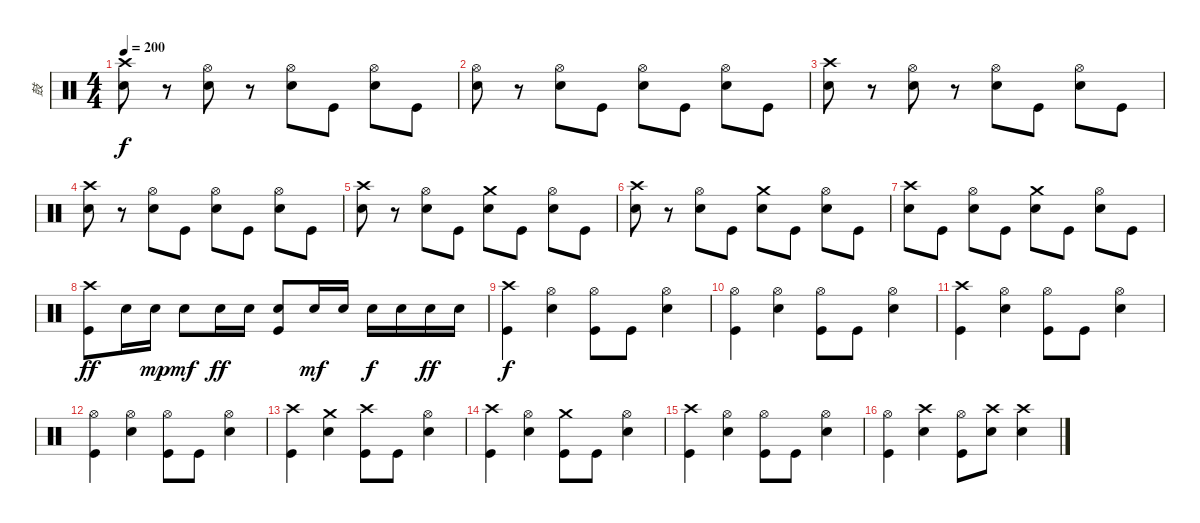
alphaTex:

\track ("鼓" "鼓") {instrument percussion}
\staff {score}
\articulation defaults
\ts (4 4)
\tempo 200
\clef neutral
\ks c
("Crash high (hit)" "Snare (hit) 2").8{dy f} r.8 ("Hi-Hat (open)" "Snare (hit) 2").8 r.8 ("Hi-Hat (open)" "Snare (hit) 2").8 "Kick (hit)".8 ("Hi-Hat (open)" "Snare (hit) 2").8 "Kick (hit)".8 |
("Hi-Hat (open)" "Snare (hit) 2").8 r.8 ("Hi-Hat (open)" "Snare (hit) 2").8 "Kick (hit)".8 ("Hi-Hat (open)" "Snare (hit) 2").8 "Kick (hit)".8 ("Hi-Hat (open)" "Snare (hit) 2").8 "Kick (hit)".8 |
("Crash high (hit)" "Snare (hit) 2").8 r.8 ("Hi-Hat (open)" "Snare (hit) 2").8 r.8 ("Hi-Hat (open)" "Snare (hit) 2").8 "Kick (hit)".8 ("Hi-Hat (open)" "Snare (hit) 2").8 "Kick (hit)".8 |
("Crash high (hit)" "Snare (hit) 2").8 r.8 ("Hi-Hat (open)" "Snare (hit) 2").8 "Kick (hit)".8 ("Hi-Hat (open)" "Snare (hit) 2").8 "Kick (hit)".8 ("Hi-Hat (open)" "Snare (hit) 2").8 "Kick (hit)".8 |
("Crash high (hit)" "Snare (hit) 2").8 r.8 ("Hi-Hat (open)" "Snare (hit) 2").8 "Kick (hit)".8 ("Crash medium (hit)" "Snare (hit) 2").8 "Kick (hit)".8 ("Hi-Hat (open)" "Snare (hit) 2").8 "Kick (hit)".8 |
("Crash high (hit)" "Snare (hit) 2").8 r.8 ("Hi-Hat (open)" "Snare (hit) 2").8 "Kick (hit)".8 ("Crash medium (hit)" "Snare (hit) 2").8 "Kick (hit)".8 ("Hi-Hat (open)" "Snare (hit) 2").8 "Kick (hit)".8 |
("Crash high (hit)" "Snare (hit) 2").8 "Kick (hit)".8 ("Hi-Hat (open)" "Snare (hit) 2").8 "Kick (hit)".8 ("Crash medium (hit)" "Snare (hit) 2").8 "Kick (hit)".8 ("Hi-Hat (open)" "Snare (hit) 2").8 "Kick (hit)".8 |
("Crash high (hit)" "Kick (hit)").8{dy ff} "Snare (hit) 2".16 "Snare (hit) 2".16{dy mp} "Snare (hit) 2".8{dy mf} "Snare (hit) 2".16{dy ff} "Snare (hit) 2".16 ("Snare (hit) 2" "Kick (hit)").8 "Snare (hit) 2".16{dy mf} "Snare (hit) 2".16 "Snare (hit) 2".16{dy f} "Snare (hit) 2".16 "Snare (hit) 2".16{dy ff} "Snare (hit) 2".16 |
("Crash high (hit)" "Kick (hit)").4{dy f} ("Hi-Hat (open)" "Snare (hit) 2").4 ("Hi-Hat (open)" "Kick (hit)").8 "Kick (hit)".8 ("Hi-Hat (open)" "Snare (hit) 2").4 |
("Hi-Hat (open)" "Kick (hit)").4 ("Hi-Hat (open)" "Snare (hit) 2").4 ("Hi-Hat (open)" "Kick (hit)").8 "Kick (hit)".8 ("Hi-Hat (open)" "Snare (hit) 2").4 |
("Crash high (hit)" "Kick (hit)").4 ("Hi-Hat (open)" "Snare (hit) 2").4 ("Hi-Hat (open)" "Kick (hit)").8 "Kick (hit)".8 ("Hi-Hat (open)" "Snare (hit) 2").4 |
("Hi-Hat (open)" "Kick (hit)").4 ("Hi-Hat (open)" "Snare (hit) 2").4 ("Hi-Hat (open)" "Kick (hit)").8 "Kick (hit)".8 ("Hi-Hat (open)" "Snare (hit) 2").4 |
("Crash high (hit)" "Kick (hit)").4 ("Crash medium (hit)" "Snare (hit) 2").4 ("Crash high (hit)" "Kick (hit)").8 "Kick (hit)".8 ("Hi-Hat (open)" "Snare (hit) 2").4 |
("Crash high (hit)" "Kick (hit)").4 ("Hi-Hat (open)" "Snare (hit) 2").4 ("Crash medium (hit)" "Kick (hit)").8 "Kick (hit)".8 ("Hi-Hat (open)" "Snare (hit) 2").4 |
("Crash high (hit)" "Kick (hit)").4 ("Hi-Hat (open)" "Snare (hit) 2").4 ("Hi-Hat (open)" "Kick (hit)").8 "Kick (hit)".8 ("Hi-Hat (open)" "Snare (hit) 2").4 |
("Hi-Hat (open)" "Kick (hit)").4 ("Crash high (hit)" "Snare (hit) 2").4 ("Hi-Hat (open)" "Kick (hit)").8 ("Crash high (hit)" "Snare (hit) 2").8 ("Crash high (hit)" "Snare (hit) 2").4
